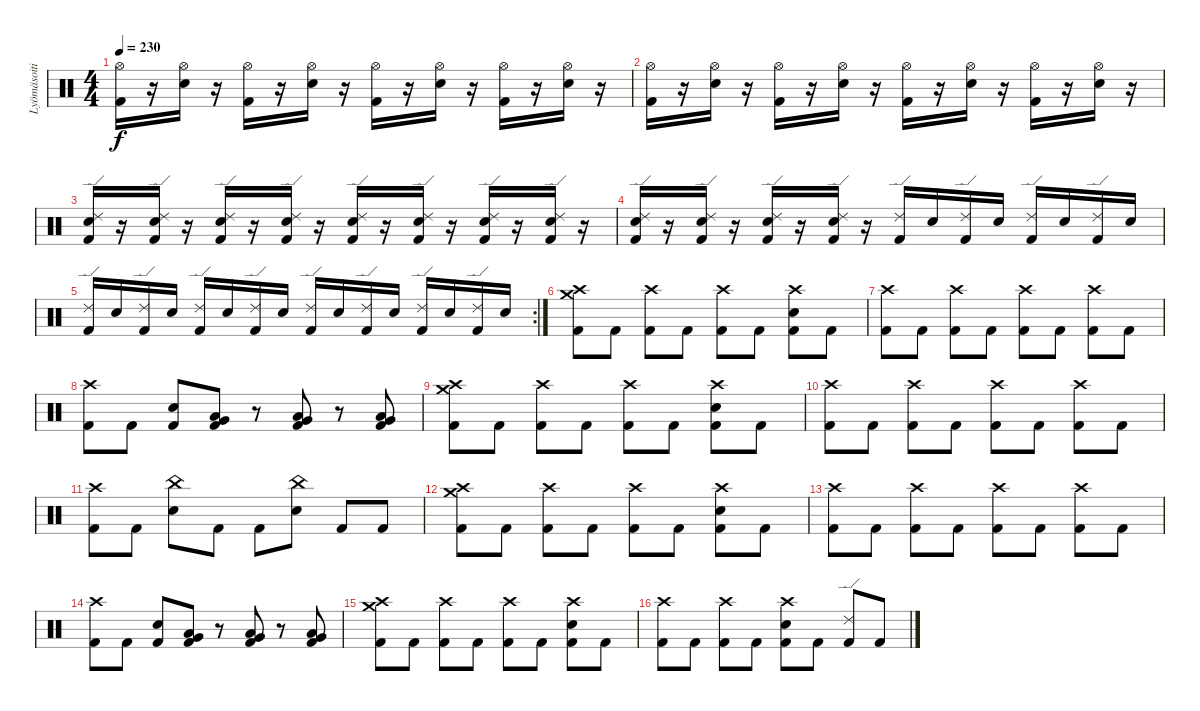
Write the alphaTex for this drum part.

\track ("Lyömäsoitin" "Lyömäsoiti") {instrument percussion}
\staff {score}
\articulation defaults
\ts (4 4)
\tempo 230
\clef neutral
\ks c
("Hi-Hat (open)" "Kick (hit) 2").16{dy f} r.16 ("Hi-Hat (open)" "Snare (hit) 2").16 r.16 ("Hi-Hat (open)" "Kick (hit) 2").16 r.16 ("Hi-Hat (open)" "Snare (hit) 2").16 r.16 ("Hi-Hat (open)" "Kick (hit) 2").16 r.16 ("Hi-Hat (open)" "Snare (hit) 2").16 r.16 ("Hi-Hat (open)" "Kick (hit) 2").16 r.16 ("Hi-Hat (open)" "Snare (hit) 2").16 r.16 |
("Hi-Hat (open)" "Kick (hit) 2").16 r.16 ("Hi-Hat (open)" "Snare (hit) 2").16 r.16 ("Hi-Hat (open)" "Kick (hit) 2").16 r.16 ("Hi-Hat (open)" "Snare (hit) 2").16 r.16 ("Hi-Hat (open)" "Kick (hit) 2").16 r.16 ("Hi-Hat (open)" "Snare (hit) 2").16 r.16 ("Hi-Hat (open)" "Kick (hit) 2").16 r.16 ("Hi-Hat (open)" "Snare (hit) 2").16 r.16 |
("Ride (edge) 2" "Snare (hit) 2" "Kick (hit) 2").16 r.16 ("Ride (edge) 2" "Snare (hit) 2" "Kick (hit) 2").16 r.16 ("Ride (edge) 2" "Snare (hit) 2" "Kick (hit) 2").16 r.16 ("Ride (edge) 2" "Snare (hit) 2" "Kick (hit) 2").16 r.16 ("Ride (edge) 2" "Snare (hit) 2" "Kick (hit) 2").16 r.16 ("Ride (edge) 2" "Snare (hit) 2" "Kick (hit) 2").16 r.16 ("Ride (edge) 2" "Snare (hit) 2" "Kick (hit) 2").16 r.16 ("Ride (edge) 2" "Snare (hit) 2" "Kick (hit) 2").16 r.16 |
("Ride (edge) 2" "Snare (hit) 2" "Kick (hit) 2").16 r.16 ("Ride (edge) 2" "Snare (hit) 2" "Kick (hit) 2").16 r.16 ("Ride (edge) 2" "Snare (hit) 2" "Kick (hit) 2").16 r.16 ("Ride (edge) 2" "Snare (hit) 2" "Kick (hit) 2").16 r.16 ("Ride (edge) 2" "Kick (hit) 2").16 "Snare (hit) 2".16 ("Ride (edge) 2" "Kick (hit) 2").16 "Snare (hit) 2".16 ("Ride (edge) 2" "Kick (hit) 2").16 "Snare (hit) 2".16 ("Ride (edge) 2" "Kick (hit) 2").16 "Snare (hit) 2".16 |
\rc 2
("Ride (edge) 2" "Kick (hit) 2").16 "Snare (hit) 2".16 ("Ride (edge) 2" "Kick (hit) 2").16 "Snare (hit) 2".16 ("Ride (edge) 2" "Kick (hit) 2").16 "Snare (hit) 2".16 ("Ride (edge) 2" "Kick (hit) 2").16 "Snare (hit) 2".16 ("Ride (edge) 2" "Kick (hit) 2").16 "Snare (hit) 2".16 ("Ride (edge) 2" "Kick (hit) 2").16 "Snare (hit) 2".16 ("Ride (edge) 2" "Kick (hit) 2").16 "Snare (hit) 2".16 ("Ride (edge) 2" "Kick (hit) 2").16 "Snare (hit) 2".16 |
("Crash medium (hit)" "Crash high (hit)" "Kick (hit) 2").8 "Kick (hit) 2".8 ("Crash high (hit)" "Kick (hit) 2").8 "Kick (hit) 2".8 ("Crash high (hit)" "Kick (hit) 2").8 "Kick (hit) 2".8 ("Crash high (hit)" "Snare (hit) 2" "Kick (hit) 2").8 "Kick (hit) 2".8 |
("Crash high (hit)" "Kick (hit) 2").8 "Kick (hit) 2".8 ("Crash high (hit)" "Kick (hit) 2").8 "Kick (hit) 2".8 ("Crash high (hit)" "Kick (hit) 2").8 "Kick (hit) 2".8 ("Crash high (hit)" "Kick (hit) 2").8 "Kick (hit) 2".8 |
("Crash high (hit)" "Kick (hit) 2").8 "Kick (hit) 2".8 ("Snare (hit) 2" "Kick (hit) 2").8 ("Very Low Tom (hit)" "Low Floor Tom (hit)" "Kick (hit) 2").8 r.8 ("Very Low Tom (hit)" "Low Floor Tom (hit)" "Kick (hit) 2").8 r.8 ("Very Low Tom (hit)" "Low Floor Tom (hit)" "Kick (hit) 2").8 |
("Crash medium (hit)" "Crash high (hit)" "Kick (hit) 2").8 "Kick (hit) 2".8 ("Crash high (hit)" "Kick (hit) 2").8 "Kick (hit) 2".8 ("Crash high (hit)" "Kick (hit) 2").8 "Kick (hit) 2".8 ("Crash high (hit)" "Snare (hit) 2" "Kick (hit) 2").8 "Kick (hit) 2".8 |
("Crash high (hit)" "Kick (hit) 2").8 "Kick (hit) 2".8 ("Crash high (hit)" "Kick (hit) 2").8 "Kick (hit) 2".8 ("Crash high (hit)" "Kick (hit) 2").8 "Kick (hit) 2".8 ("Crash high (hit)" "Kick (hit) 2").8 "Kick (hit) 2".8 |
("Crash high (hit)" "Kick (hit) 2").8 "Kick (hit) 2".8 ("China (hit)" "Snare (hit) 2").8 "Kick (hit) 2".8 "Kick (hit) 2".8 ("China (hit)" "Snare (hit) 2").8 "Kick (hit) 2".8 "Kick (hit) 2".8 |
("Crash medium (hit)" "Crash high (hit)" "Kick (hit) 2").8 "Kick (hit) 2".8 ("Crash high (hit)" "Kick (hit) 2").8 "Kick (hit) 2".8 ("Crash high (hit)" "Kick (hit) 2").8 "Kick (hit) 2".8 ("Crash high (hit)" "Snare (hit) 2" "Kick (hit) 2").8 "Kick (hit) 2".8 |
("Crash high (hit)" "Kick (hit) 2").8 "Kick (hit) 2".8 ("Crash high (hit)" "Kick (hit) 2").8 "Kick (hit) 2".8 ("Crash high (hit)" "Kick (hit) 2").8 "Kick (hit) 2".8 ("Crash high (hit)" "Kick (hit) 2").8 "Kick (hit) 2".8 |
("Crash high (hit)" "Kick (hit) 2").8 "Kick (hit) 2".8 ("Snare (hit) 2" "Kick (hit) 2").8 ("Very Low Tom (hit)" "Low Floor Tom (hit)" "Kick (hit) 2").8 r.8 ("Very Low Tom (hit)" "Low Floor Tom (hit)" "Kick (hit) 2").8 r.8 ("Very Low Tom (hit)" "Low Floor Tom (hit)" "Kick (hit) 2").8 |
("Crash medium (hit)" "Crash high (hit)" "Kick (hit) 2").8 "Kick (hit) 2".8 ("Crash high (hit)" "Kick (hit) 2").8 "Kick (hit) 2".8 ("Crash high (hit)" "Kick (hit) 2").8 "Kick (hit) 2".8 ("Crash high (hit)" "Snare (hit) 2" "Kick (hit) 2").8 "Kick (hit) 2".8 |
("Crash high (hit)" "Kick (hit) 2").8 "Kick (hit) 2".8 ("Crash high (hit)" "Kick (hit) 2").8 "Kick (hit) 2".8 ("Crash high (hit)" "Snare (hit) 2" "Kick (hit) 2").8 "Kick (hit) 2".8 ("Ride (edge) 2" "Kick (hit) 2").8 "Kick (hit) 2".8
